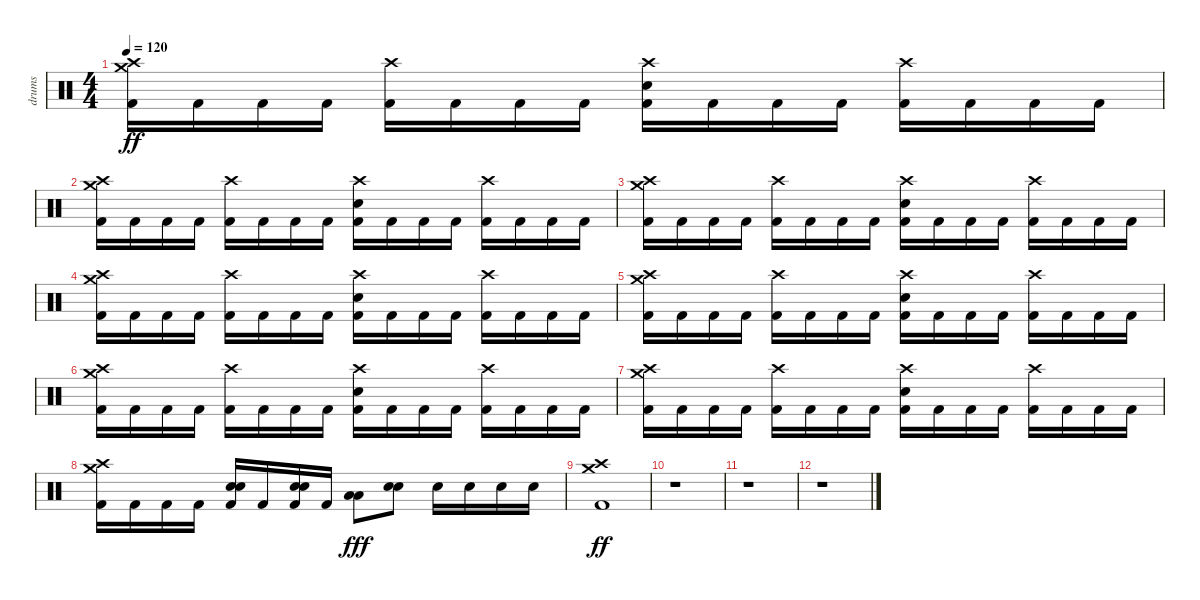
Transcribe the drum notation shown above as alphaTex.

\track ("drums" "drums") {instrument percussion}
\staff {score}
\articulation defaults
\ts (4 4)
\tempo 120
\clef neutral
\ks c
("Crash medium (hit)" "Crash high (hit)" "Kick (hit) 2").16{dy ff} "Kick (hit) 2".16 "Kick (hit) 2".16 "Kick (hit) 2".16 ("Crash high (hit)" "Kick (hit) 2").16 "Kick (hit) 2".16 "Kick (hit) 2".16 "Kick (hit) 2".16 ("Crash high (hit)" "Electric Snare (hit)" "Kick (hit) 2").16 "Kick (hit) 2".16 "Kick (hit) 2".16 "Kick (hit) 2".16 ("Crash high (hit)" "Kick (hit) 2").16 "Kick (hit) 2".16 "Kick (hit) 2".16 "Kick (hit) 2".16 |
("Crash medium (hit)" "Crash high (hit)" "Kick (hit) 2").16 "Kick (hit) 2".16 "Kick (hit) 2".16 "Kick (hit) 2".16 ("Crash high (hit)" "Kick (hit) 2").16 "Kick (hit) 2".16 "Kick (hit) 2".16 "Kick (hit) 2".16 ("Crash high (hit)" "Electric Snare (hit)" "Kick (hit) 2").16 "Kick (hit) 2".16 "Kick (hit) 2".16 "Kick (hit) 2".16 ("Crash high (hit)" "Kick (hit) 2").16 "Kick (hit) 2".16 "Kick (hit) 2".16 "Kick (hit) 2".16 |
("Crash medium (hit)" "Crash high (hit)" "Kick (hit) 2").16 "Kick (hit) 2".16 "Kick (hit) 2".16 "Kick (hit) 2".16 ("Crash high (hit)" "Kick (hit) 2").16 "Kick (hit) 2".16 "Kick (hit) 2".16 "Kick (hit) 2".16 ("Crash high (hit)" "Electric Snare (hit)" "Kick (hit) 2").16 "Kick (hit) 2".16 "Kick (hit) 2".16 "Kick (hit) 2".16 ("Crash high (hit)" "Kick (hit) 2").16 "Kick (hit) 2".16 "Kick (hit) 2".16 "Kick (hit) 2".16 |
("Crash medium (hit)" "Crash high (hit)" "Kick (hit) 2").16 "Kick (hit) 2".16 "Kick (hit) 2".16 "Kick (hit) 2".16 ("Crash high (hit)" "Kick (hit) 2").16 "Kick (hit) 2".16 "Kick (hit) 2".16 "Kick (hit) 2".16 ("Crash high (hit)" "Electric Snare (hit)" "Kick (hit) 2").16 "Kick (hit) 2".16 "Kick (hit) 2".16 "Kick (hit) 2".16 ("Crash high (hit)" "Kick (hit) 2").16 "Kick (hit) 2".16 "Kick (hit) 2".16 "Kick (hit) 2".16 |
("Crash medium (hit)" "Crash high (hit)" "Kick (hit) 2").16 "Kick (hit) 2".16 "Kick (hit) 2".16 "Kick (hit) 2".16 ("Crash high (hit)" "Kick (hit) 2").16 "Kick (hit) 2".16 "Kick (hit) 2".16 "Kick (hit) 2".16 ("Crash high (hit)" "Electric Snare (hit)" "Kick (hit) 2").16 "Kick (hit) 2".16 "Kick (hit) 2".16 "Kick (hit) 2".16 ("Crash high (hit)" "Kick (hit) 2").16 "Kick (hit) 2".16 "Kick (hit) 2".16 "Kick (hit) 2".16 |
("Crash medium (hit)" "Crash high (hit)" "Kick (hit) 2").16 "Kick (hit) 2".16 "Kick (hit) 2".16 "Kick (hit) 2".16 ("Crash high (hit)" "Kick (hit) 2").16 "Kick (hit) 2".16 "Kick (hit) 2".16 "Kick (hit) 2".16 ("Crash high (hit)" "Electric Snare (hit)" "Kick (hit) 2").16 "Kick (hit) 2".16 "Kick (hit) 2".16 "Kick (hit) 2".16 ("Crash high (hit)" "Kick (hit) 2").16 "Kick (hit) 2".16 "Kick (hit) 2".16 "Kick (hit) 2".16 |
("Crash medium (hit)" "Crash high (hit)" "Kick (hit) 2").16 "Kick (hit) 2".16 "Kick (hit) 2".16 "Kick (hit) 2".16 ("Crash high (hit)" "Kick (hit) 2").16 "Kick (hit) 2".16 "Kick (hit) 2".16 "Kick (hit) 2".16 ("Crash high (hit)" "Electric Snare (hit)" "Kick (hit) 2").16 "Kick (hit) 2".16 "Kick (hit) 2".16 "Kick (hit) 2".16 ("Crash high (hit)" "Kick (hit) 2").16 "Kick (hit) 2".16 "Kick (hit) 2".16 "Kick (hit) 2".16 |
("Crash medium (hit)" "Crash high (hit)" "Kick (hit) 2").16 "Kick (hit) 2".16 "Kick (hit) 2".16 "Kick (hit) 2".16 ("Electric Snare (hit)" "Electric Snare (hit)" "Kick (hit) 2").16 "Kick (hit) 2".16 ("Electric Snare (hit)" "Electric Snare (hit)" "Kick (hit) 2").16 "Kick (hit) 2".16 ("Low Tom (hit)" "Low Tom (hit)").8{dy fff} ("Electric Snare (hit)" "Electric Snare (hit)").8 "Electric Snare (hit)".16 "Electric Snare (hit)".16 "Electric Snare (hit)".16 "Electric Snare (hit)".16 |
("Crash medium (hit)" "Crash high (hit)" "Kick (hit) 2").1{dy ff} |
r.1 |
r.1 |
r.1
